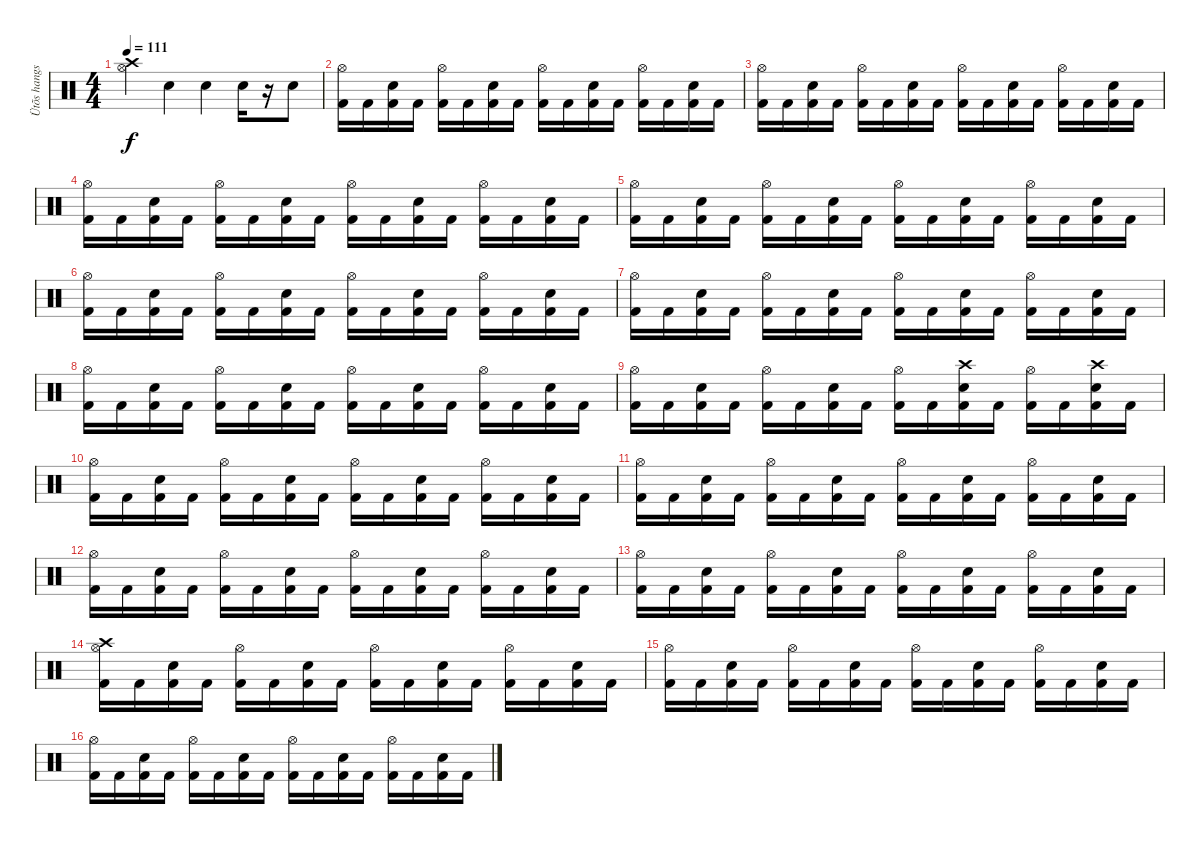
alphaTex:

\track ("Ütõs hangszer" "Ütõs hangs") {instrument percussion}
\staff {score}
\articulation defaults
\ts (4 4)
\tempo 111
\clef neutral
\ks c
("Crash high (hit)" "Hi-Hat (open)").4{dy f} "Electric Snare (hit)".4 "Electric Snare (hit)".4 "Electric Snare (hit)".16 r.16 "Electric Snare (hit)".8 |
("Kick (hit) 2" "Hi-Hat (open)").16 "Kick (hit) 2".16 ("Kick (hit) 2" "Electric Snare (hit)").16 "Kick (hit) 2".16 ("Kick (hit) 2" "Hi-Hat (open)").16 "Kick (hit) 2".16 ("Kick (hit) 2" "Electric Snare (hit)").16 "Kick (hit) 2".16 ("Kick (hit) 2" "Hi-Hat (open)").16 "Kick (hit) 2".16 ("Kick (hit) 2" "Electric Snare (hit)").16 "Kick (hit) 2".16 ("Kick (hit) 2" "Hi-Hat (open)").16 "Kick (hit) 2".16 ("Kick (hit) 2" "Electric Snare (hit)").16 "Kick (hit) 2".16 |
("Kick (hit) 2" "Hi-Hat (open)").16 "Kick (hit) 2".16 ("Kick (hit) 2" "Electric Snare (hit)").16 "Kick (hit) 2".16 ("Kick (hit) 2" "Hi-Hat (open)").16 "Kick (hit) 2".16 ("Kick (hit) 2" "Electric Snare (hit)").16 "Kick (hit) 2".16 ("Kick (hit) 2" "Hi-Hat (open)").16 "Kick (hit) 2".16 ("Kick (hit) 2" "Electric Snare (hit)").16 "Kick (hit) 2".16 ("Kick (hit) 2" "Hi-Hat (open)").16 "Kick (hit) 2".16 ("Kick (hit) 2" "Electric Snare (hit)").16 "Kick (hit) 2".16 |
("Kick (hit) 2" "Hi-Hat (open)").16 "Kick (hit) 2".16 ("Kick (hit) 2" "Electric Snare (hit)").16 "Kick (hit) 2".16 ("Kick (hit) 2" "Hi-Hat (open)").16 "Kick (hit) 2".16 ("Kick (hit) 2" "Electric Snare (hit)").16 "Kick (hit) 2".16 ("Kick (hit) 2" "Hi-Hat (open)").16 "Kick (hit) 2".16 ("Kick (hit) 2" "Electric Snare (hit)").16 "Kick (hit) 2".16 ("Kick (hit) 2" "Hi-Hat (open)").16 "Kick (hit) 2".16 ("Kick (hit) 2" "Electric Snare (hit)").16 "Kick (hit) 2".16 |
("Kick (hit) 2" "Hi-Hat (open)").16 "Kick (hit) 2".16 ("Kick (hit) 2" "Electric Snare (hit)").16 "Kick (hit) 2".16 ("Kick (hit) 2" "Hi-Hat (open)").16 "Kick (hit) 2".16 ("Kick (hit) 2" "Electric Snare (hit)").16 "Kick (hit) 2".16 ("Kick (hit) 2" "Hi-Hat (open)").16 "Kick (hit) 2".16 ("Kick (hit) 2" "Electric Snare (hit)").16 "Kick (hit) 2".16 ("Kick (hit) 2" "Hi-Hat (open)").16 "Kick (hit) 2".16 ("Kick (hit) 2" "Electric Snare (hit)").16 "Kick (hit) 2".16 |
("Kick (hit) 2" "Hi-Hat (open)").16 "Kick (hit) 2".16 ("Kick (hit) 2" "Electric Snare (hit)").16 "Kick (hit) 2".16 ("Kick (hit) 2" "Hi-Hat (open)").16 "Kick (hit) 2".16 ("Kick (hit) 2" "Electric Snare (hit)").16 "Kick (hit) 2".16 ("Kick (hit) 2" "Hi-Hat (open)").16 "Kick (hit) 2".16 ("Kick (hit) 2" "Electric Snare (hit)").16 "Kick (hit) 2".16 ("Kick (hit) 2" "Hi-Hat (open)").16 "Kick (hit) 2".16 ("Kick (hit) 2" "Electric Snare (hit)").16 "Kick (hit) 2".16 |
("Kick (hit) 2" "Hi-Hat (open)").16 "Kick (hit) 2".16 ("Kick (hit) 2" "Electric Snare (hit)").16 "Kick (hit) 2".16 ("Kick (hit) 2" "Hi-Hat (open)").16 "Kick (hit) 2".16 ("Kick (hit) 2" "Electric Snare (hit)").16 "Kick (hit) 2".16 ("Kick (hit) 2" "Hi-Hat (open)").16 "Kick (hit) 2".16 ("Kick (hit) 2" "Electric Snare (hit)").16 "Kick (hit) 2".16 ("Kick (hit) 2" "Hi-Hat (open)").16 "Kick (hit) 2".16 ("Kick (hit) 2" "Electric Snare (hit)").16 "Kick (hit) 2".16 |
("Kick (hit) 2" "Hi-Hat (open)").16 "Kick (hit) 2".16 ("Kick (hit) 2" "Electric Snare (hit)").16 "Kick (hit) 2".16 ("Kick (hit) 2" "Hi-Hat (open)").16 "Kick (hit) 2".16 ("Kick (hit) 2" "Electric Snare (hit)").16 "Kick (hit) 2".16 ("Kick (hit) 2" "Hi-Hat (open)").16 "Kick (hit) 2".16 ("Kick (hit) 2" "Electric Snare (hit)").16 "Kick (hit) 2".16 ("Kick (hit) 2" "Hi-Hat (open)").16 "Kick (hit) 2".16 ("Kick (hit) 2" "Electric Snare (hit)").16 "Kick (hit) 2".16 |
("Kick (hit) 2" "Hi-Hat (open)").16 "Kick (hit) 2".16 ("Kick (hit) 2" "Electric Snare (hit)").16 "Kick (hit) 2".16 ("Kick (hit) 2" "Hi-Hat (open)").16 "Kick (hit) 2".16 ("Kick (hit) 2" "Electric Snare (hit)").16 "Kick (hit) 2".16 ("Kick (hit) 2" "Hi-Hat (open)").16 "Kick (hit) 2".16 ("Kick (hit) 2" "Crash high (hit)" "Electric Snare (hit)").16 "Kick (hit) 2".16 ("Kick (hit) 2" "Hi-Hat (open)").16 "Kick (hit) 2".16 ("Kick (hit) 2" "Crash high (hit)" "Electric Snare (hit)").16 "Kick (hit) 2".16 |
("Kick (hit) 2" "Hi-Hat (open)").16 "Kick (hit) 2".16 ("Kick (hit) 2" "Electric Snare (hit)").16 "Kick (hit) 2".16 ("Kick (hit) 2" "Hi-Hat (open)").16 "Kick (hit) 2".16 ("Kick (hit) 2" "Electric Snare (hit)").16 "Kick (hit) 2".16 ("Kick (hit) 2" "Hi-Hat (open)").16 "Kick (hit) 2".16 ("Kick (hit) 2" "Electric Snare (hit)").16 "Kick (hit) 2".16 ("Kick (hit) 2" "Hi-Hat (open)").16 "Kick (hit) 2".16 ("Kick (hit) 2" "Electric Snare (hit)").16 "Kick (hit) 2".16 |
("Kick (hit) 2" "Hi-Hat (open)").16 "Kick (hit) 2".16 ("Kick (hit) 2" "Electric Snare (hit)").16 "Kick (hit) 2".16 ("Kick (hit) 2" "Hi-Hat (open)").16 "Kick (hit) 2".16 ("Kick (hit) 2" "Electric Snare (hit)").16 "Kick (hit) 2".16 ("Kick (hit) 2" "Hi-Hat (open)").16 "Kick (hit) 2".16 ("Kick (hit) 2" "Electric Snare (hit)").16 "Kick (hit) 2".16 ("Kick (hit) 2" "Hi-Hat (open)").16 "Kick (hit) 2".16 ("Kick (hit) 2" "Electric Snare (hit)").16 "Kick (hit) 2".16 |
("Kick (hit) 2" "Hi-Hat (open)").16 "Kick (hit) 2".16 ("Kick (hit) 2" "Electric Snare (hit)").16 "Kick (hit) 2".16 ("Kick (hit) 2" "Hi-Hat (open)").16 "Kick (hit) 2".16 ("Kick (hit) 2" "Electric Snare (hit)").16 "Kick (hit) 2".16 ("Kick (hit) 2" "Hi-Hat (open)").16 "Kick (hit) 2".16 ("Kick (hit) 2" "Electric Snare (hit)").16 "Kick (hit) 2".16 ("Kick (hit) 2" "Hi-Hat (open)").16 "Kick (hit) 2".16 ("Kick (hit) 2" "Electric Snare (hit)").16 "Kick (hit) 2".16 |
("Kick (hit) 2" "Hi-Hat (open)").16 "Kick (hit) 2".16 ("Kick (hit) 2" "Electric Snare (hit)").16 "Kick (hit) 2".16 ("Kick (hit) 2" "Hi-Hat (open)").16 "Kick (hit) 2".16 ("Kick (hit) 2" "Electric Snare (hit)").16 "Kick (hit) 2".16 ("Kick (hit) 2" "Hi-Hat (open)").16 "Kick (hit) 2".16 ("Kick (hit) 2" "Electric Snare (hit)").16 "Kick (hit) 2".16 ("Kick (hit) 2" "Hi-Hat (open)").16 "Kick (hit) 2".16 ("Kick (hit) 2" "Electric Snare (hit)").16 "Kick (hit) 2".16 |
("Kick (hit) 2" "Crash high (hit)" "Hi-Hat (open)").16 "Kick (hit) 2".16 ("Kick (hit) 2" "Electric Snare (hit)").16 "Kick (hit) 2".16 ("Kick (hit) 2" "Hi-Hat (open)").16 "Kick (hit) 2".16 ("Kick (hit) 2" "Electric Snare (hit)").16 "Kick (hit) 2".16 ("Kick (hit) 2" "Hi-Hat (open)").16 "Kick (hit) 2".16 ("Kick (hit) 2" "Electric Snare (hit)").16 "Kick (hit) 2".16 ("Kick (hit) 2" "Hi-Hat (open)").16 "Kick (hit) 2".16 ("Kick (hit) 2" "Electric Snare (hit)").16 "Kick (hit) 2".16 |
("Kick (hit) 2" "Hi-Hat (open)").16 "Kick (hit) 2".16 ("Kick (hit) 2" "Electric Snare (hit)").16 "Kick (hit) 2".16 ("Kick (hit) 2" "Hi-Hat (open)").16 "Kick (hit) 2".16 ("Kick (hit) 2" "Electric Snare (hit)").16 "Kick (hit) 2".16 ("Kick (hit) 2" "Hi-Hat (open)").16 "Kick (hit) 2".16 ("Kick (hit) 2" "Electric Snare (hit)").16 "Kick (hit) 2".16 ("Kick (hit) 2" "Hi-Hat (open)").16 "Kick (hit) 2".16 ("Kick (hit) 2" "Electric Snare (hit)").16 "Kick (hit) 2".16 |
("Kick (hit) 2" "Hi-Hat (open)").16 "Kick (hit) 2".16 ("Kick (hit) 2" "Electric Snare (hit)").16 "Kick (hit) 2".16 ("Kick (hit) 2" "Hi-Hat (open)").16 "Kick (hit) 2".16 ("Kick (hit) 2" "Electric Snare (hit)").16 "Kick (hit) 2".16 ("Kick (hit) 2" "Hi-Hat (open)").16 "Kick (hit) 2".16 ("Kick (hit) 2" "Electric Snare (hit)").16 "Kick (hit) 2".16 ("Kick (hit) 2" "Hi-Hat (open)").16 "Kick (hit) 2".16 ("Kick (hit) 2" "Electric Snare (hit)").16 "Kick (hit) 2".16
